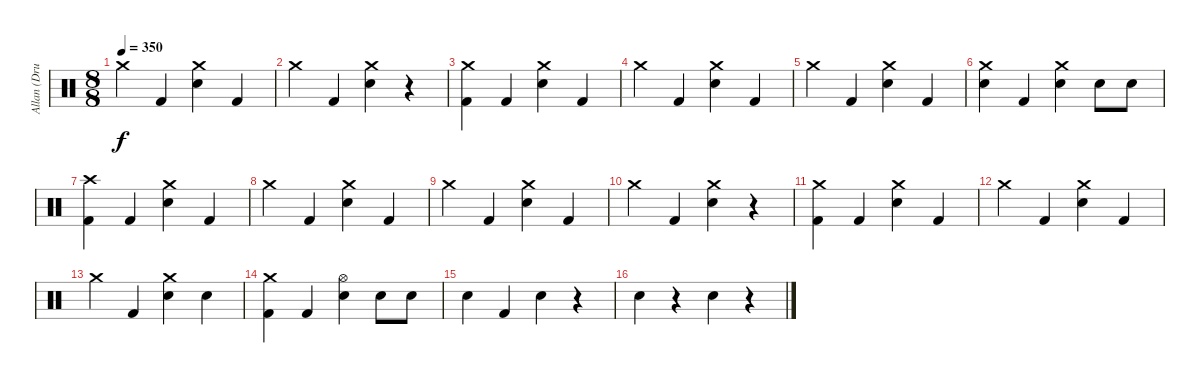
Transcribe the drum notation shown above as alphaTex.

\track ("Allan (Drums)" "Allan (Dru") {solo instrument percussion}
\staff {score}
\articulation defaults
\ts (8 8)
\tempo 350
\clef neutral
\ks c "Crash medium (hit)".4{dy f} "Kick (hit) 2".4
("Crash medium (hit)" "Snare (hit) 2").4 "Kick (hit) 2".4 |
"Crash medium (hit)".4 "Kick (hit) 2".4 ("Crash medium (hit)" "Snare (hit) 2").4 r.4 |
("Crash medium (hit)" "Kick (hit) 2").4 "Kick (hit) 2".4 ("Crash medium (hit)" "Snare (hit) 2").4 "Kick (hit) 2".4 |
"Crash medium (hit)".4 "Kick (hit) 2".4 ("Crash medium (hit)" "Snare (hit) 2").4 "Kick (hit) 2".4 |
"Crash medium (hit)".4 "Kick (hit) 2".4 ("Crash medium (hit)" "Snare (hit) 2").4 "Kick (hit) 2".4 |
("Crash medium (hit)" "Snare (hit) 2").4 "Kick (hit) 2".4 ("Crash medium (hit)" "Snare (hit) 2").4 "Snare (hit) 2".8 "Snare (hit) 2".8 |
("Crash high (hit)" "Kick (hit) 2").4 "Kick (hit) 2".4 ("Crash medium (hit)" "Snare (hit) 2").4 "Kick (hit) 2".4 |
"Crash medium (hit)".4 "Kick (hit) 2".4 ("Crash medium (hit)" "Snare (hit) 2").4 "Kick (hit) 2".4 |
"Crash medium (hit)".4 "Kick (hit) 2".4 ("Crash medium (hit)" "Snare (hit) 2").4 "Kick (hit) 2".4 |
"Crash medium (hit)".4 "Kick (hit) 2".4 ("Crash medium (hit)" "Snare (hit) 2").4 r.4 |
("Crash medium (hit)" "Kick (hit) 2").4 "Kick (hit) 2".4 ("Crash medium (hit)" "Snare (hit) 2").4 "Kick (hit) 2".4 |
"Crash medium (hit)".4 "Kick (hit) 2".4 ("Crash medium (hit)" "Snare (hit) 2").4 "Kick (hit) 2".4 |
"Crash medium (hit)".4 "Kick (hit) 2".4 ("Crash medium (hit)" "Snare (hit) 2").4 "Snare (hit) 2".4 |
("Crash medium (hit)" "Kick (hit) 2").4 "Kick (hit) 2".4 ("Hi-Hat (open)" "Snare (hit) 2").4 "Snare (hit) 2".8 "Snare (hit) 2".8 |
"Snare (hit) 2".4 "Kick (hit) 2".4 "Snare (hit) 2".4 r.4 |
"Snare (hit) 2".4 r.4 "Snare (hit) 2".4 r.4
